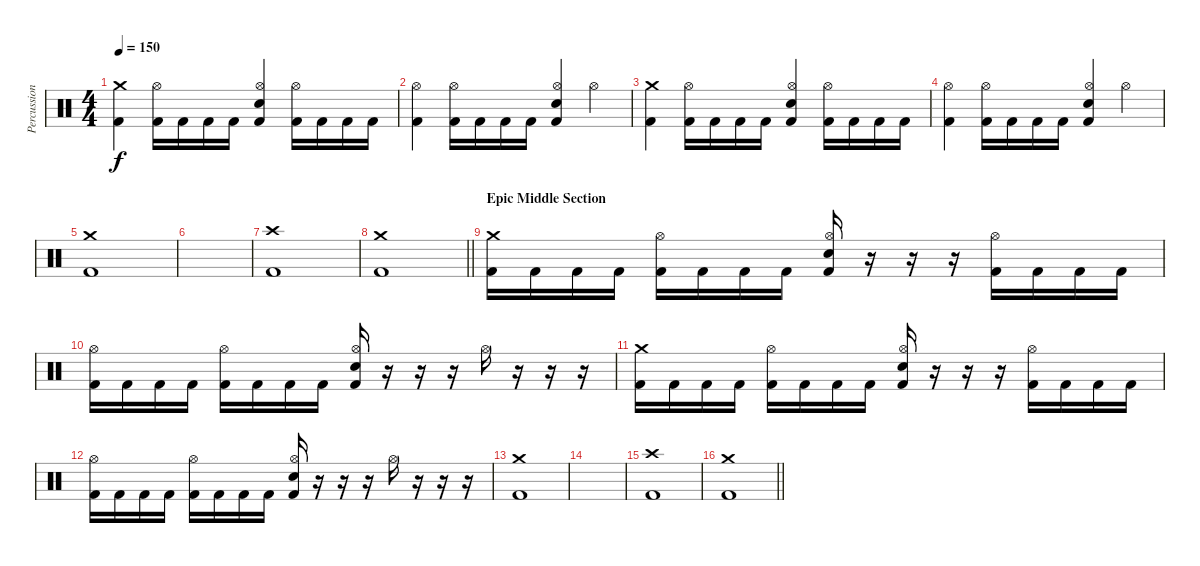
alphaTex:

\track ("Percussion" "Percussion") {instrument percussion}
\staff {score}
\articulation defaults
\ts (4 4)
\tempo 150
\clef neutral
\ks c
("Crash medium (hit)" "Kick (hit) 2").4{dy f} ("Hi-Hat (open)" "Kick (hit) 2").16 "Kick (hit) 2".16 "Kick (hit) 2".16 "Kick (hit) 2".16 ("Hi-Hat (open)" "Electric Snare (hit)" "Kick (hit) 2").4 ("Hi-Hat (open)" "Kick (hit) 2").16 "Kick (hit) 2".16 "Kick (hit) 2".16 "Kick (hit) 2".16 |
("Hi-Hat (open)" "Kick (hit) 2").4 ("Hi-Hat (open)" "Kick (hit) 2").16 "Kick (hit) 2".16 "Kick (hit) 2".16 "Kick (hit) 2".16 ("Hi-Hat (open)" "Electric Snare (hit)" "Kick (hit) 2").4 "Hi-Hat (open)".4 |
("Crash medium (hit)" "Kick (hit) 2").4 ("Hi-Hat (open)" "Kick (hit) 2").16 "Kick (hit) 2".16 "Kick (hit) 2".16 "Kick (hit) 2".16 ("Hi-Hat (open)" "Electric Snare (hit)" "Kick (hit) 2").4 ("Hi-Hat (open)" "Kick (hit) 2").16 "Kick (hit) 2".16 "Kick (hit) 2".16 "Kick (hit) 2".16 |
("Hi-Hat (open)" "Kick (hit) 2").4 ("Hi-Hat (open)" "Kick (hit) 2").16 "Kick (hit) 2".16 "Kick (hit) 2".16 "Kick (hit) 2".16 ("Hi-Hat (open)" "Electric Snare (hit)" "Kick (hit) 2").4 "Hi-Hat (open)".4 |
("Crash medium (hit)" "Kick (hit) 2").1 |
|
("Crash high (hit)" "Kick (hit) 2").1 |
\barLineRight lightlight
("Crash medium (hit)" "Kick (hit) 2").1 |
\section ("" "Epic Middle Section ")
("Crash medium (hit)" "Kick (hit) 2").16 "Kick (hit) 2".16 "Kick (hit) 2".16 "Kick (hit) 2".16 ("Hi-Hat (open)" "Kick (hit) 2").16 "Kick (hit) 2".16 "Kick (hit) 2".16 "Kick (hit) 2".16 ("Hi-Hat (open)" "Electric Snare (hit)" "Kick (hit) 2").16 r.16 r.16 r.16 ("Hi-Hat (open)" "Kick (hit) 2").16 "Kick (hit) 2".16 "Kick (hit) 2".16 "Kick (hit) 2".16 |
("Hi-Hat (open)" "Kick (hit) 2").16 "Kick (hit) 2".16 "Kick (hit) 2".16 "Kick (hit) 2".16 ("Hi-Hat (open)" "Kick (hit) 2").16 "Kick (hit) 2".16 "Kick (hit) 2".16 "Kick (hit) 2".16 ("Hi-Hat (open)" "Electric Snare (hit)" "Kick (hit) 2").16 r.16 r.16 r.16 "Hi-Hat (open)".16 r.16 r.16 r.16 |
("Crash medium (hit)" "Kick (hit) 2").16 "Kick (hit) 2".16 "Kick (hit) 2".16 "Kick (hit) 2".16 ("Hi-Hat (open)" "Kick (hit) 2").16 "Kick (hit) 2".16 "Kick (hit) 2".16 "Kick (hit) 2".16 ("Hi-Hat (open)" "Electric Snare (hit)" "Kick (hit) 2").16 r.16 r.16 r.16 ("Hi-Hat (open)" "Kick (hit) 2").16 "Kick (hit) 2".16 "Kick (hit) 2".16 "Kick (hit) 2".16 |
("Hi-Hat (open)" "Kick (hit) 2").16 "Kick (hit) 2".16 "Kick (hit) 2".16 "Kick (hit) 2".16 ("Hi-Hat (open)" "Kick (hit) 2").16 "Kick (hit) 2".16 "Kick (hit) 2".16 "Kick (hit) 2".16 ("Hi-Hat (open)" "Electric Snare (hit)" "Kick (hit) 2").16 r.16 r.16 r.16 "Hi-Hat (open)".16 r.16 r.16 r.16 |
("Crash medium (hit)" "Kick (hit) 2").1 |
|
("Crash high (hit)" "Kick (hit) 2").1 |
\barLineRight lightlight
("Crash medium (hit)" "Kick (hit) 2").1
